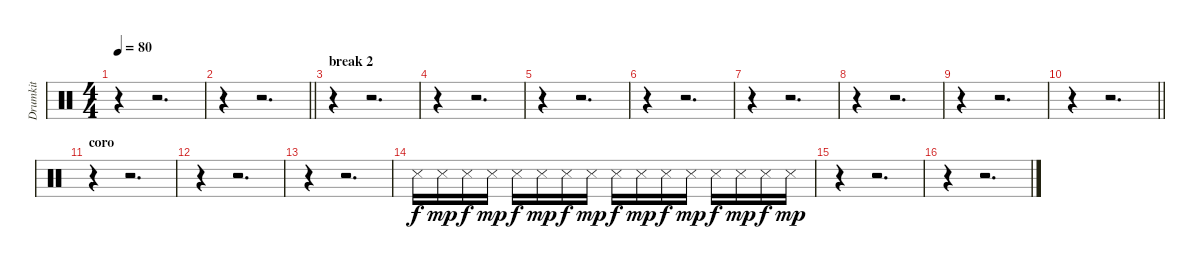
\track ("Drumkit" "Drumkit") {instrument percussion}
\staff {score}
\articulation defaults
\ts (4 4)
\tempo 80
\clef neutral
\ks c
r.4{dy f} r.2{d} |
\barLineRight lightlight
r.4 r.2{d} |
\section ("" "break 2")
r.4 r.2{d} |
r.4 r.2{d} |
r.4 r.2{d} |
r.4 r.2{d} |
r.4 r.2{d} |
r.4 r.2{d} |
r.4 r.2{d} |
\barLineRight lightlight
r.4 r.2{d} |
\section ("" "coro")
r.4 r.2{d} |
r.4 r.2{d} |
r.4 r.2{d} |
"Snare (side stick) 3".16 "Snare (side stick) 3".16{dy mp} "Snare (side stick) 3".16{dy f} "Snare (side stick) 3".16{dy mp} "Snare (side stick) 3".16{dy f} "Snare (side stick) 3".16{dy mp} "Snare (side stick) 3".16{dy f} "Snare (side stick) 3".16{dy mp} "Snare (side stick) 3".16{dy f} "Snare (side stick) 3".16{dy mp} "Snare (side stick) 3".16{dy f} "Snare (side stick) 3".16{dy mp} "Snare (side stick) 3".16{dy f} "Snare (side stick) 3".16{dy mp} "Snare (side stick) 3".16{dy f} "Snare (side stick) 3".16{dy mp} |
r.4 r.2{d} |
r.4 r.2{d}
